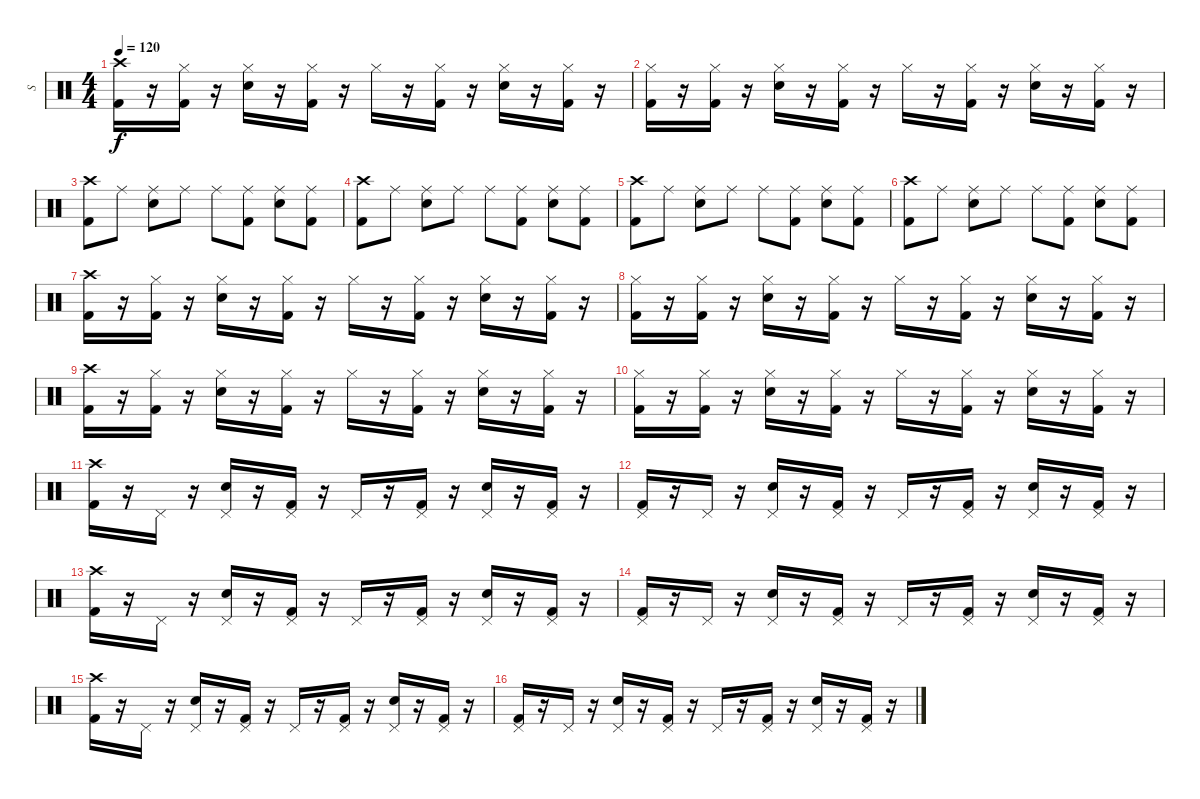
\track ("  S" "  S") {instrument percussion}
\staff {score}
\articulation defaults
\ts (4 4)
\tempo 120
\clef neutral
\ks c
("Crash high (hit)" "Kick (hit) 2").16{dy f} r.16 ("Hi-Hat (closed)" "Kick (hit) 2").16 r.16 ("Hi-Hat (closed)" "Snare (hit) 2").16 r.16 ("Hi-Hat (closed)" "Kick (hit) 2").16 r.16 "Hi-Hat (closed)".16 r.16 ("Hi-Hat (closed)" "Kick (hit) 2").16 r.16 ("Hi-Hat (closed)" "Snare (hit) 2").16 r.16 ("Hi-Hat (closed)" "Kick (hit) 2").16 r.16 |
("Hi-Hat (closed)" "Kick (hit) 2").16 r.16 ("Hi-Hat (closed)" "Kick (hit) 2").16 r.16 ("Hi-Hat (closed)" "Snare (hit) 2").16 r.16 ("Hi-Hat (closed)" "Kick (hit) 2").16 r.16 "Hi-Hat (closed)".16 r.16 ("Hi-Hat (closed)" "Kick (hit) 2").16 r.16 ("Hi-Hat (closed)" "Snare (hit) 2").16 r.16 ("Hi-Hat (closed)" "Kick (hit) 2").16 r.16 |
("Crash high (hit)" "Kick (hit) 2").8 "Ride (middle)".8 ("Ride (middle)" "Snare (hit) 2").8 "Ride (middle)".8 "Ride (middle)".8 ("Ride (middle)" "Kick (hit) 2").8 ("Ride (middle)" "Snare (hit) 2").8 ("Ride (middle)" "Kick (hit) 2").8 |
("Crash high (hit)" "Kick (hit) 2").8 "Ride (middle)".8 ("Ride (middle)" "Snare (hit) 2").8 "Ride (middle)".8 "Ride (middle)".8 ("Ride (middle)" "Kick (hit) 2").8 ("Ride (middle)" "Snare (hit) 2").8 ("Ride (middle)" "Kick (hit) 2").8 |
("Crash high (hit)" "Kick (hit) 2").8 "Ride (middle)".8 ("Ride (middle)" "Snare (hit) 2").8 "Ride (middle)".8 "Ride (middle)".8 ("Ride (middle)" "Kick (hit) 2").8 ("Ride (middle)" "Snare (hit) 2").8 ("Ride (middle)" "Kick (hit) 2").8 |
("Crash high (hit)" "Kick (hit) 2").8 "Ride (middle)".8 ("Ride (middle)" "Snare (hit) 2").8 "Ride (middle)".8 "Ride (middle)".8 ("Ride (middle)" "Kick (hit) 2").8 ("Ride (middle)" "Snare (hit) 2").8 ("Ride (middle)" "Kick (hit) 2").8 |
("Crash high (hit)" "Kick (hit) 2").16 r.16 ("Hi-Hat (closed)" "Kick (hit) 2").16 r.16 ("Hi-Hat (closed)" "Snare (hit) 2").16 r.16 ("Hi-Hat (closed)" "Kick (hit) 2").16 r.16 "Hi-Hat (closed)".16 r.16 ("Hi-Hat (closed)" "Kick (hit) 2").16 r.16 ("Hi-Hat (closed)" "Snare (hit) 2").16 r.16 ("Hi-Hat (closed)" "Kick (hit) 2").16 r.16 |
("Hi-Hat (closed)" "Kick (hit) 2").16 r.16 ("Hi-Hat (closed)" "Kick (hit) 2").16 r.16 ("Hi-Hat (closed)" "Snare (hit) 2").16 r.16 ("Hi-Hat (closed)" "Kick (hit) 2").16 r.16 "Hi-Hat (closed)".16 r.16 ("Hi-Hat (closed)" "Kick (hit) 2").16 r.16 ("Hi-Hat (closed)" "Snare (hit) 2").16 r.16 ("Hi-Hat (closed)" "Kick (hit) 2").16 r.16 |
("Crash high (hit)" "Kick (hit) 2").16 r.16 ("Hi-Hat (closed)" "Kick (hit) 2").16 r.16 ("Hi-Hat (closed)" "Snare (hit) 2").16 r.16 ("Hi-Hat (closed)" "Kick (hit) 2").16 r.16 "Hi-Hat (closed)".16 r.16 ("Hi-Hat (closed)" "Kick (hit) 2").16 r.16 ("Hi-Hat (closed)" "Snare (hit) 2").16 r.16 ("Hi-Hat (closed)" "Kick (hit) 2").16 r.16 |
("Hi-Hat (closed)" "Kick (hit) 2").16 r.16 ("Hi-Hat (closed)" "Kick (hit) 2").16 r.16 ("Hi-Hat (closed)" "Snare (hit) 2").16 r.16 ("Hi-Hat (closed)" "Kick (hit) 2").16 r.16 "Hi-Hat (closed)".16 r.16 ("Hi-Hat (closed)" "Kick (hit) 2").16 r.16 ("Hi-Hat (closed)" "Snare (hit) 2").16 r.16 ("Hi-Hat (closed)" "Kick (hit) 2").16 r.16 |
("Crash high (hit)" "Kick (hit) 2").16 r.16 "Pedal Hi-Hat (hit)".16 r.16 ("Pedal Hi-Hat (hit)" "Snare (hit) 2").16 r.16 ("Pedal Hi-Hat (hit)" "Kick (hit) 2").16 r.16 "Pedal Hi-Hat (hit)".16 r.16 ("Pedal Hi-Hat (hit)" "Kick (hit) 2").16 r.16 ("Pedal Hi-Hat (hit)" "Snare (hit) 2").16 r.16 ("Pedal Hi-Hat (hit)" "Kick (hit) 2").16 r.16 |
("Pedal Hi-Hat (hit)" "Kick (hit) 2").16 r.16 "Pedal Hi-Hat (hit)".16 r.16 ("Pedal Hi-Hat (hit)" "Snare (hit) 2").16 r.16 ("Pedal Hi-Hat (hit)" "Kick (hit) 2").16 r.16 "Pedal Hi-Hat (hit)".16 r.16 ("Pedal Hi-Hat (hit)" "Kick (hit) 2").16 r.16 ("Pedal Hi-Hat (hit)" "Snare (hit) 2").16 r.16 ("Pedal Hi-Hat (hit)" "Kick (hit) 2").16 r.16 |
("Crash high (hit)" "Kick (hit) 2").16 r.16 "Pedal Hi-Hat (hit)".16 r.16 ("Pedal Hi-Hat (hit)" "Snare (hit) 2").16 r.16 ("Pedal Hi-Hat (hit)" "Kick (hit) 2").16 r.16 "Pedal Hi-Hat (hit)".16 r.16 ("Pedal Hi-Hat (hit)" "Kick (hit) 2").16 r.16 ("Pedal Hi-Hat (hit)" "Snare (hit) 2").16 r.16 ("Pedal Hi-Hat (hit)" "Kick (hit) 2").16 r.16 |
("Pedal Hi-Hat (hit)" "Kick (hit) 2").16 r.16 "Pedal Hi-Hat (hit)".16 r.16 ("Pedal Hi-Hat (hit)" "Snare (hit) 2").16 r.16 ("Pedal Hi-Hat (hit)" "Kick (hit) 2").16 r.16 "Pedal Hi-Hat (hit)".16 r.16 ("Pedal Hi-Hat (hit)" "Kick (hit) 2").16 r.16 ("Pedal Hi-Hat (hit)" "Snare (hit) 2").16 r.16 ("Pedal Hi-Hat (hit)" "Kick (hit) 2").16 r.16 |
("Crash high (hit)" "Kick (hit) 2").16 r.16 "Pedal Hi-Hat (hit)".16 r.16 ("Pedal Hi-Hat (hit)" "Snare (hit) 2").16 r.16 ("Pedal Hi-Hat (hit)" "Kick (hit) 2").16 r.16 "Pedal Hi-Hat (hit)".16 r.16 ("Pedal Hi-Hat (hit)" "Kick (hit) 2").16 r.16 ("Pedal Hi-Hat (hit)" "Snare (hit) 2").16 r.16 ("Pedal Hi-Hat (hit)" "Kick (hit) 2").16 r.16 |
("Pedal Hi-Hat (hit)" "Kick (hit) 2").16 r.16 "Pedal Hi-Hat (hit)".16 r.16 ("Pedal Hi-Hat (hit)" "Snare (hit) 2").16 r.16 ("Pedal Hi-Hat (hit)" "Kick (hit) 2").16 r.16 "Pedal Hi-Hat (hit)".16 r.16 ("Pedal Hi-Hat (hit)" "Kick (hit) 2").16 r.16 ("Pedal Hi-Hat (hit)" "Snare (hit) 2").16 r.16 ("Pedal Hi-Hat (hit)" "Kick (hit) 2").16 r.16
